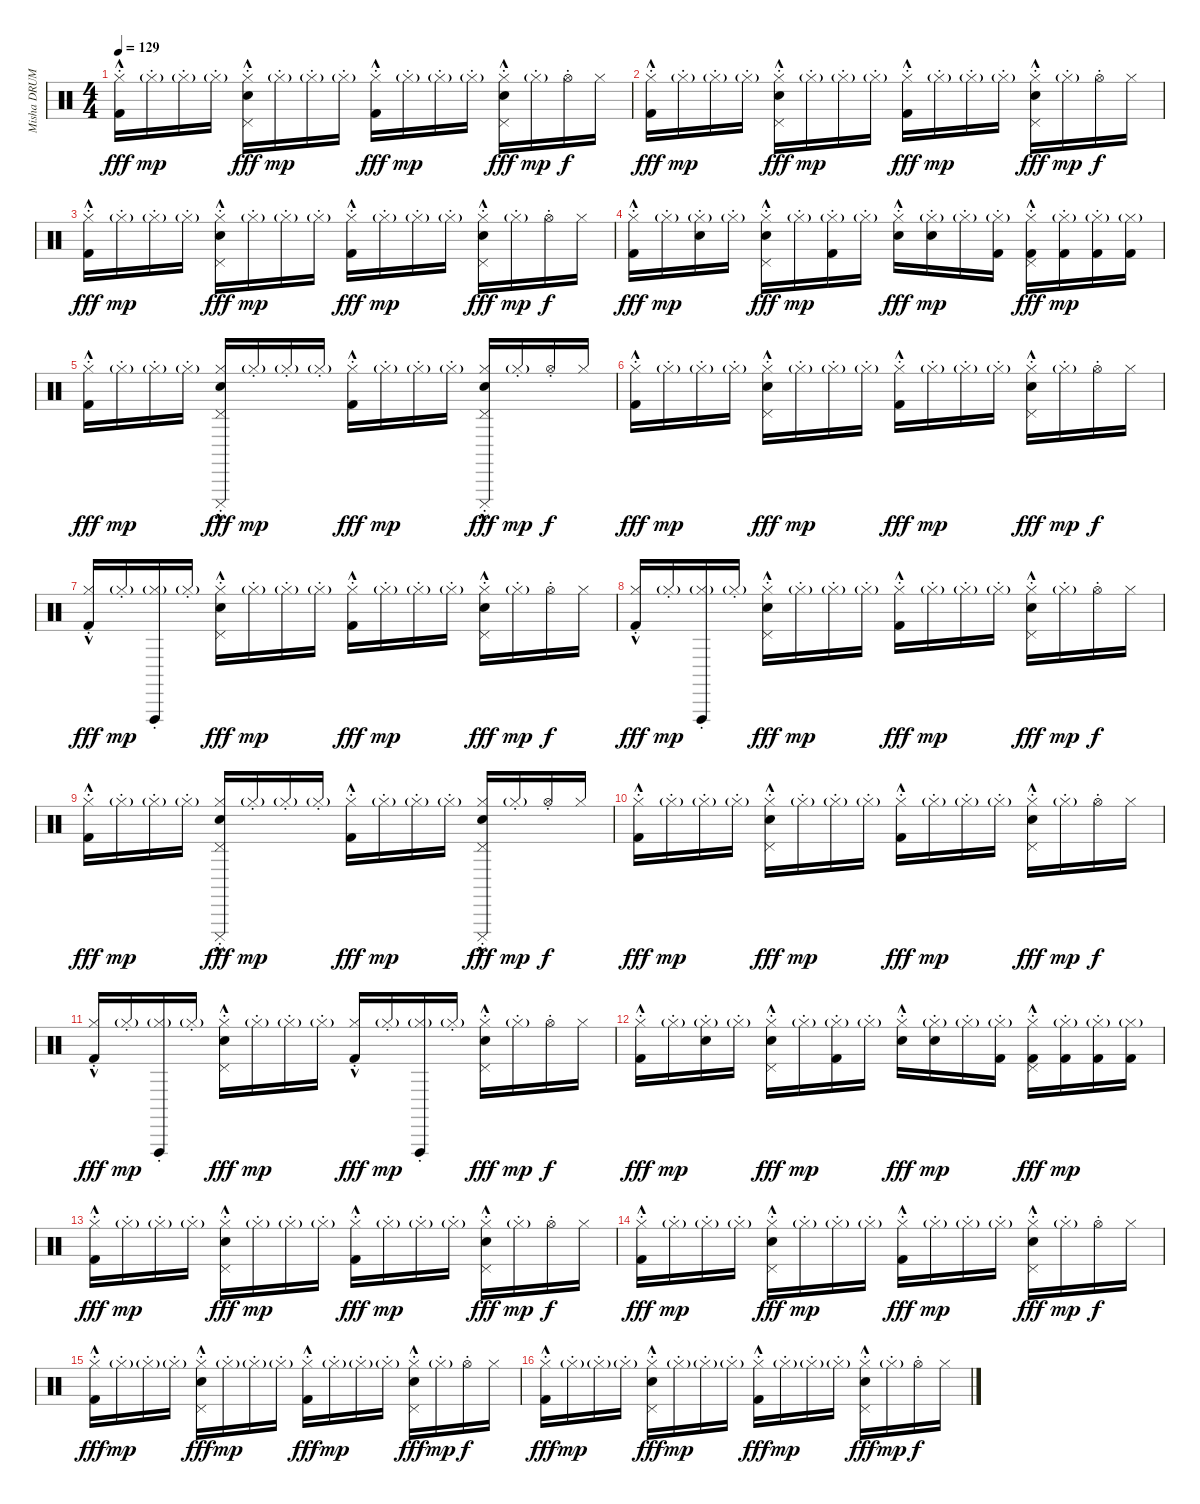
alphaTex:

\track ("Misha DRUMS" "Misha DRUM") {instrument percussion}
\staff {score}
\articulation defaults
\ts (4 4)
\tempo 129
\clef neutral
\ks c
("Hi-Hat (closed)"{hac st} "Kick (hit) 2").16{dy fff} "Hi-Hat (closed)"{g st}.16{dy mp} "Hi-Hat (closed)"{g st}.16 "Hi-Hat (closed)"{g st}.16 ("Hi-Hat (closed)"{hac st} "Pedal Hi-Hat (hit)" "Snare (hit) 2").16{dy fff} "Hi-Hat (closed)"{g st}.16{dy mp} "Hi-Hat (closed)"{g st}.16 "Hi-Hat (closed)"{g st}.16 ("Hi-Hat (closed)"{hac st} "Kick (hit) 2").16{dy fff} "Hi-Hat (closed)"{g st}.16{dy mp} "Hi-Hat (closed)"{g st}.16 "Hi-Hat (closed)"{g st}.16 ("Hi-Hat (closed)"{hac st} "Pedal Hi-Hat (hit)" "Snare (hit) 2").16{dy fff} "Hi-Hat (closed)"{g st}.16{dy mp} "Hi-Hat (open)"{st}.16{dy f} "Hi-Hat (closed)".16 |
("Hi-Hat (closed)"{hac st} "Kick (hit) 2").16{dy fff} "Hi-Hat (closed)"{g st}.16{dy mp} "Hi-Hat (closed)"{g st}.16 "Hi-Hat (closed)"{g st}.16 ("Hi-Hat (closed)"{hac st} "Pedal Hi-Hat (hit)" "Snare (hit) 2").16{dy fff} "Hi-Hat (closed)"{g st}.16{dy mp} "Hi-Hat (closed)"{g st}.16 "Hi-Hat (closed)"{g st}.16 ("Hi-Hat (closed)"{hac st} "Kick (hit) 2").16{dy fff} "Hi-Hat (closed)"{g st}.16{dy mp} "Hi-Hat (closed)"{g st}.16 "Hi-Hat (closed)"{g st}.16 ("Hi-Hat (closed)"{hac st} "Pedal Hi-Hat (hit)" "Snare (hit) 2").16{dy fff} "Hi-Hat (closed)"{g st}.16{dy mp} "Hi-Hat (open)"{st}.16{dy f} "Hi-Hat (closed)".16 |
("Hi-Hat (closed)"{hac st} "Kick (hit) 2").16{dy fff} "Hi-Hat (closed)"{g st}.16{dy mp} "Hi-Hat (closed)"{g st}.16 "Hi-Hat (closed)"{g st}.16 ("Hi-Hat (closed)"{hac st} "Pedal Hi-Hat (hit)" "Snare (hit) 2").16{dy fff} "Hi-Hat (closed)"{g st}.16{dy mp} "Hi-Hat (closed)"{g st}.16 "Hi-Hat (closed)"{g st}.16 ("Hi-Hat (closed)"{hac st} "Kick (hit) 2").16{dy fff} "Hi-Hat (closed)"{g st}.16{dy mp} "Hi-Hat (closed)"{g st}.16 "Hi-Hat (closed)"{g st}.16 ("Hi-Hat (closed)"{hac st} "Pedal Hi-Hat (hit)" "Snare (hit) 2").16{dy fff} "Hi-Hat (closed)"{g st}.16{dy mp} "Hi-Hat (open)"{st}.16{dy f} "Hi-Hat (closed)".16 |
("Hi-Hat (closed)"{hac st} "Kick (hit) 2").16{dy fff} "Hi-Hat (closed)"{g st}.16{dy mp} ("Hi-Hat (closed)"{g st} "Snare (hit) 2").16 "Hi-Hat (closed)"{g st}.16 ("Hi-Hat (closed)"{hac st} "Pedal Hi-Hat (hit)" "Snare (hit) 2").16{dy fff} "Hi-Hat (closed)"{g st}.16{dy mp} ("Hi-Hat (closed)"{g st} "Kick (hit) 2").16 "Hi-Hat (closed)"{g st}.16 ("Hi-Hat (closed)"{hac st} "Snare (hit) 2").16{dy fff} ("Hi-Hat (closed)"{g st} "Snare (hit) 2").16{dy mp} "Hi-Hat (closed)"{g st}.16 ("Hi-Hat (closed)"{g st} "Kick (hit) 2").16 ("Hi-Hat (closed)"{hac st} "Pedal Hi-Hat (hit)" "Kick (hit) 2").16{dy fff} ("Hi-Hat (closed)"{g st} "Kick (hit) 2").16{dy mp} ("Hi-Hat (closed)"{g st} "Kick (hit) 2").16 ("Hi-Hat (closed)"{g} "Kick (hit) 2").16 |
("Hi-Hat (closed)"{hac st} "Kick (hit) 2").16{dy fff} "Hi-Hat (closed)"{g st}.16{dy mp} "Hi-Hat (closed)"{g st}.16 "Hi-Hat (closed)"{g st}.16 ("Hi-Hat (closed)"{hac st} "Pedal Hi-Hat (hit)" "Snare (hit) 2" "Cuica (mute)").16{dy fff} "Hi-Hat (closed)"{g st}.16{dy mp} "Hi-Hat (closed)"{g st}.16 "Hi-Hat (closed)"{g st}.16 ("Hi-Hat (closed)"{hac st} "Kick (hit) 2").16{dy fff} "Hi-Hat (closed)"{g st}.16{dy mp} "Hi-Hat (closed)"{g st}.16 "Hi-Hat (closed)"{g st}.16 ("Hi-Hat (closed)"{hac st} "Pedal Hi-Hat (hit)" "Snare (hit) 2" "Cuica (mute)").16{dy fff} "Hi-Hat (closed)"{g st}.16{dy mp} "Hi-Hat (open)"{st}.16{dy f} "Hi-Hat (closed)".16 |
("Hi-Hat (closed)"{hac st} "Kick (hit) 2").16{dy fff} "Hi-Hat (closed)"{g st}.16{dy mp} "Hi-Hat (closed)"{g st}.16 "Hi-Hat (closed)"{g st}.16 ("Hi-Hat (closed)"{hac st} "Pedal Hi-Hat (hit)" "Snare (hit) 2").16{dy fff} "Hi-Hat (closed)"{g st}.16{dy mp} "Hi-Hat (closed)"{g st}.16 "Hi-Hat (closed)"{g st}.16 ("Hi-Hat (closed)"{hac st} "Kick (hit) 2").16{dy fff} "Hi-Hat (closed)"{g st}.16{dy mp} "Hi-Hat (closed)"{g st}.16 "Hi-Hat (closed)"{g st}.16 ("Hi-Hat (closed)"{hac st} "Pedal Hi-Hat (hit)" "Snare (hit) 2").16{dy fff} "Hi-Hat (closed)"{g st}.16{dy mp} "Hi-Hat (open)"{st}.16{dy f} "Hi-Hat (closed)".16 |
("Hi-Hat (closed)"{hac st} "Kick (hit) 2").16{dy fff} "Hi-Hat (closed)"{g st}.16{dy mp} ("Hi-Hat (closed)"{g st} "Vibraslap (hit)").16 "Hi-Hat (closed)"{g st}.16 ("Hi-Hat (closed)"{hac st} "Pedal Hi-Hat (hit)" "Snare (hit) 2").16{dy fff} "Hi-Hat (closed)"{g st}.16{dy mp} "Hi-Hat (closed)"{g st}.16 "Hi-Hat (closed)"{g st}.16 ("Hi-Hat (closed)"{hac st} "Kick (hit) 2").16{dy fff} "Hi-Hat (closed)"{g st}.16{dy mp} "Hi-Hat (closed)"{g st}.16 "Hi-Hat (closed)"{g st}.16 ("Hi-Hat (closed)"{hac st} "Pedal Hi-Hat (hit)" "Snare (hit) 2").16{dy fff} "Hi-Hat (closed)"{g st}.16{dy mp} "Hi-Hat (open)"{st}.16{dy f} "Hi-Hat (closed)".16 |
("Hi-Hat (closed)"{hac st} "Kick (hit) 2").16{dy fff} "Hi-Hat (closed)"{g st}.16{dy mp} ("Hi-Hat (closed)"{g st} "Vibraslap (hit)").16 "Hi-Hat (closed)"{g st}.16 ("Hi-Hat (closed)"{hac st} "Pedal Hi-Hat (hit)" "Snare (hit) 2").16{dy fff} "Hi-Hat (closed)"{g st}.16{dy mp} "Hi-Hat (closed)"{g st}.16 "Hi-Hat (closed)"{g st}.16 ("Hi-Hat (closed)"{hac st} "Kick (hit) 2").16{dy fff} "Hi-Hat (closed)"{g st}.16{dy mp} "Hi-Hat (closed)"{g st}.16 "Hi-Hat (closed)"{g st}.16 ("Hi-Hat (closed)"{hac st} "Pedal Hi-Hat (hit)" "Snare (hit) 2").16{dy fff} "Hi-Hat (closed)"{g st}.16{dy mp} "Hi-Hat (open)"{st}.16{dy f} "Hi-Hat (closed)".16 |
("Hi-Hat (closed)"{hac st} "Kick (hit) 2").16{dy fff} "Hi-Hat (closed)"{g st}.16{dy mp} "Hi-Hat (closed)"{g st}.16 "Hi-Hat (closed)"{g st}.16 ("Hi-Hat (closed)"{hac st} "Pedal Hi-Hat (hit)" "Snare (hit) 2" "Cuica (mute)").16{dy fff} "Hi-Hat (closed)"{g st}.16{dy mp} "Hi-Hat (closed)"{g st}.16 "Hi-Hat (closed)"{g st}.16 ("Hi-Hat (closed)"{hac st} "Kick (hit) 2").16{dy fff} "Hi-Hat (closed)"{g st}.16{dy mp} "Hi-Hat (closed)"{g st}.16 "Hi-Hat (closed)"{g st}.16 ("Hi-Hat (closed)"{hac st} "Pedal Hi-Hat (hit)" "Snare (hit) 2" "Cuica (mute)").16{dy fff} "Hi-Hat (closed)"{g st}.16{dy mp} "Hi-Hat (open)"{st}.16{dy f} "Hi-Hat (closed)".16 |
("Hi-Hat (closed)"{hac st} "Kick (hit) 2").16{dy fff} "Hi-Hat (closed)"{g st}.16{dy mp} "Hi-Hat (closed)"{g st}.16 "Hi-Hat (closed)"{g st}.16 ("Hi-Hat (closed)"{hac st} "Pedal Hi-Hat (hit)" "Snare (hit) 2").16{dy fff} "Hi-Hat (closed)"{g st}.16{dy mp} "Hi-Hat (closed)"{g st}.16 "Hi-Hat (closed)"{g st}.16 ("Hi-Hat (closed)"{hac st} "Kick (hit) 2").16{dy fff} "Hi-Hat (closed)"{g st}.16{dy mp} "Hi-Hat (closed)"{g st}.16 "Hi-Hat (closed)"{g st}.16 ("Hi-Hat (closed)"{hac st} "Pedal Hi-Hat (hit)" "Snare (hit) 2").16{dy fff} "Hi-Hat (closed)"{g st}.16{dy mp} "Hi-Hat (open)"{st}.16{dy f} "Hi-Hat (closed)".16 |
("Hi-Hat (closed)"{hac st} "Kick (hit) 2").16{dy fff} "Hi-Hat (closed)"{g st}.16{dy mp} ("Hi-Hat (closed)"{g st} "Vibraslap (hit)").16 "Hi-Hat (closed)"{g st}.16 ("Hi-Hat (closed)"{hac st} "Pedal Hi-Hat (hit)" "Snare (hit) 2").16{dy fff} "Hi-Hat (closed)"{g st}.16{dy mp} "Hi-Hat (closed)"{g st}.16 "Hi-Hat (closed)"{g st}.16 ("Hi-Hat (closed)"{hac st} "Kick (hit) 2").16{dy fff} "Hi-Hat (closed)"{g st}.16{dy mp} ("Hi-Hat (closed)"{g st} "Vibraslap (hit)").16 "Hi-Hat (closed)"{g st}.16 ("Hi-Hat (closed)"{hac st} "Pedal Hi-Hat (hit)" "Snare (hit) 2").16{dy fff} "Hi-Hat (closed)"{g st}.16{dy mp} "Hi-Hat (open)"{st}.16{dy f} "Hi-Hat (closed)".16 |
("Hi-Hat (closed)"{hac st} "Kick (hit) 2").16{dy fff} "Hi-Hat (closed)"{g st}.16{dy mp} ("Hi-Hat (closed)"{g st} "Snare (hit) 2").16 "Hi-Hat (closed)"{g st}.16 ("Hi-Hat (closed)"{hac st} "Pedal Hi-Hat (hit)" "Snare (hit) 2").16{dy fff} "Hi-Hat (closed)"{g st}.16{dy mp} ("Hi-Hat (closed)"{g st} "Kick (hit) 2").16 "Hi-Hat (closed)"{g st}.16 ("Hi-Hat (closed)"{hac st} "Snare (hit) 2").16{dy fff} ("Hi-Hat (closed)"{g st} "Snare (hit) 2").16{dy mp} "Hi-Hat (closed)"{g st}.16 ("Hi-Hat (closed)"{g st} "Kick (hit) 2").16 ("Hi-Hat (closed)"{hac st} "Pedal Hi-Hat (hit)" "Kick (hit) 2").16{dy fff} ("Hi-Hat (closed)"{g st} "Kick (hit) 2").16{dy mp} ("Hi-Hat (closed)"{g st} "Kick (hit) 2").16 ("Hi-Hat (closed)"{g} "Kick (hit) 2").16 |
("Hi-Hat (closed)"{hac st} "Kick (hit) 2").16{dy fff} "Hi-Hat (closed)"{g st}.16{dy mp} "Hi-Hat (closed)"{g st}.16 "Hi-Hat (closed)"{g st}.16 ("Hi-Hat (closed)"{hac st} "Pedal Hi-Hat (hit)" "Snare (hit) 2").16{dy fff} "Hi-Hat (closed)"{g st}.16{dy mp} "Hi-Hat (closed)"{g st}.16 "Hi-Hat (closed)"{g st}.16 ("Hi-Hat (closed)"{hac st} "Kick (hit) 2").16{dy fff} "Hi-Hat (closed)"{g st}.16{dy mp} "Hi-Hat (closed)"{g st}.16 "Hi-Hat (closed)"{g st}.16 ("Hi-Hat (closed)"{hac st} "Pedal Hi-Hat (hit)" "Snare (hit) 2").16{dy fff} "Hi-Hat (closed)"{g st}.16{dy mp} "Hi-Hat (open)"{st}.16{dy f} "Hi-Hat (closed)".16 |
("Hi-Hat (closed)"{hac st} "Kick (hit) 2").16{dy fff} "Hi-Hat (closed)"{g st}.16{dy mp} "Hi-Hat (closed)"{g st}.16 "Hi-Hat (closed)"{g st}.16 ("Hi-Hat (closed)"{hac st} "Pedal Hi-Hat (hit)" "Snare (hit) 2").16{dy fff} "Hi-Hat (closed)"{g st}.16{dy mp} "Hi-Hat (closed)"{g st}.16 "Hi-Hat (closed)"{g st}.16 ("Hi-Hat (closed)"{hac st} "Kick (hit) 2").16{dy fff} "Hi-Hat (closed)"{g st}.16{dy mp} "Hi-Hat (closed)"{g st}.16 "Hi-Hat (closed)"{g st}.16 ("Hi-Hat (closed)"{hac st} "Pedal Hi-Hat (hit)" "Snare (hit) 2").16{dy fff} "Hi-Hat (closed)"{g st}.16{dy mp} "Hi-Hat (open)"{st}.16{dy f} "Hi-Hat (closed)".16 |
("Hi-Hat (closed)"{hac st} "Kick (hit) 2").16{dy fff} "Hi-Hat (closed)"{g st}.16{dy mp} "Hi-Hat (closed)"{g st}.16 "Hi-Hat (closed)"{g st}.16 ("Hi-Hat (closed)"{hac st} "Pedal Hi-Hat (hit)" "Snare (hit) 2").16{dy fff} "Hi-Hat (closed)"{g st}.16{dy mp} "Hi-Hat (closed)"{g st}.16 "Hi-Hat (closed)"{g st}.16 ("Hi-Hat (closed)"{hac st} "Kick (hit) 2").16{dy fff} "Hi-Hat (closed)"{g st}.16{dy mp} "Hi-Hat (closed)"{g st}.16 "Hi-Hat (closed)"{g st}.16 ("Hi-Hat (closed)"{hac st} "Pedal Hi-Hat (hit)" "Snare (hit) 2").16{dy fff} "Hi-Hat (closed)"{g st}.16{dy mp} "Hi-Hat (open)"{st}.16{dy f} "Hi-Hat (closed)".16 |
("Hi-Hat (closed)"{hac st} "Kick (hit) 2").16{dy fff} "Hi-Hat (closed)"{g st}.16{dy mp} "Hi-Hat (closed)"{g st}.16 "Hi-Hat (closed)"{g st}.16 ("Hi-Hat (closed)"{hac st} "Pedal Hi-Hat (hit)" "Snare (hit) 2").16{dy fff} "Hi-Hat (closed)"{g st}.16{dy mp} "Hi-Hat (closed)"{g st}.16 "Hi-Hat (closed)"{g st}.16 ("Hi-Hat (closed)"{hac st} "Kick (hit) 2").16{dy fff} "Hi-Hat (closed)"{g st}.16{dy mp} "Hi-Hat (closed)"{g st}.16 "Hi-Hat (closed)"{g st}.16 ("Hi-Hat (closed)"{hac st} "Pedal Hi-Hat (hit)" "Snare (hit) 2").16{dy fff} "Hi-Hat (closed)"{g st}.16{dy mp} "Hi-Hat (open)"{st}.16{dy f} "Hi-Hat (closed)".16
